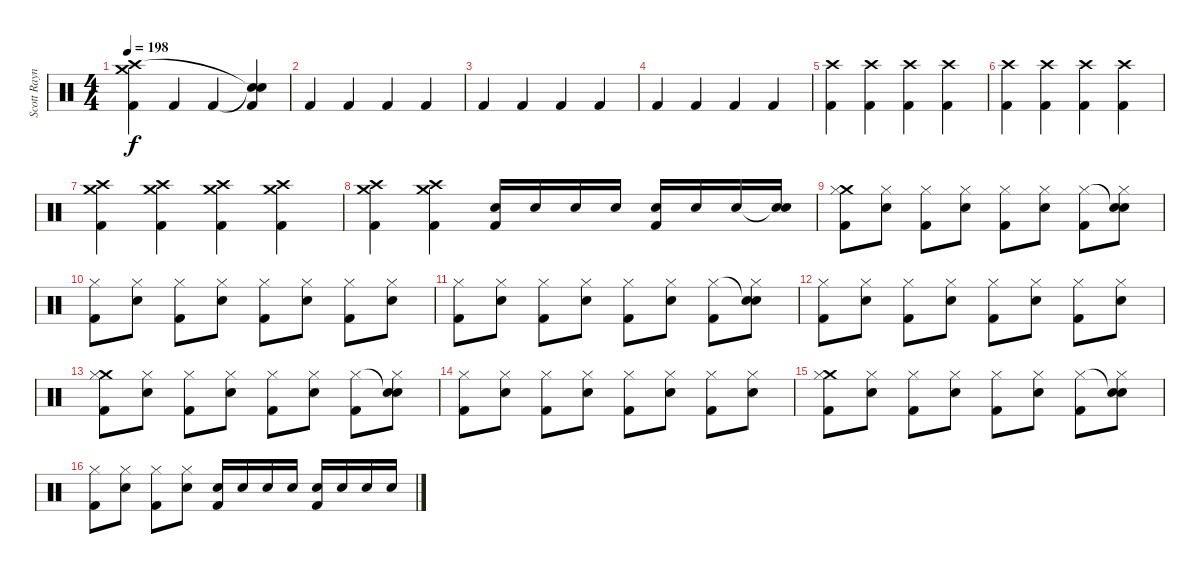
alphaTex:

\track ("Scott Raynor Drums" "Scott Rayn") {instrument percussion}
\staff {score}
\articulation defaults
\ts (4 4)
\tempo 198
\clef neutral
\ks c
("Crash medium (hit)" "Crash high (hit)" "Kick (hit) 2").4{dy f} "Kick (hit) 2".4 "Kick (hit) 2".4 ("Snare (hit)"{t} "Snare (hit)"{t} "Kick (hit) 2").4 |
"Kick (hit) 2".4 "Kick (hit) 2".4 "Kick (hit) 2".4 "Kick (hit) 2".4 |
"Kick (hit) 2".4 "Kick (hit) 2".4 "Kick (hit) 2".4 "Kick (hit) 2".4 |
"Kick (hit) 2".4 "Kick (hit) 2".4 "Kick (hit) 2".4 "Kick (hit) 2".4 |
("Crash high (hit)" "Kick (hit) 2").4 ("Crash high (hit)" "Kick (hit) 2").4 ("Crash high (hit)" "Kick (hit) 2").4 ("Crash high (hit)" "Kick (hit) 2").4 |
("Crash high (hit)" "Kick (hit) 2").4 ("Crash high (hit)" "Kick (hit) 2").4 ("Crash high (hit)" "Kick (hit) 2").4 ("Crash high (hit)" "Kick (hit) 2").4 |
("Crash high (hit)" "Crash medium (hit)" "Kick (hit) 2").4 ("Crash high (hit)" "Crash medium (hit)" "Kick (hit) 2").4 ("Crash high (hit)" "Crash medium (hit)" "Kick (hit) 2").4 ("Crash high (hit)" "Crash medium (hit)" "Kick (hit) 2").4 |
("Crash high (hit)" "Crash medium (hit)" "Kick (hit) 2").4 ("Crash high (hit)" "Crash medium (hit)" "Kick (hit) 2").4 ("Electric Snare (hit)" "Kick (hit) 2").16 "Electric Snare (hit)".16 "Electric Snare (hit)".16 "Electric Snare (hit)".16 ("Electric Snare (hit)" "Kick (hit) 2").16 "Electric Snare (hit)".16 "Electric Snare (hit)".16 ("Snare (hit)"{t} "Electric Snare (hit)").16 |
("Crash medium (hit)" "Hi-Hat (closed)" "Kick (hit) 2").8 ("Hi-Hat (closed)" "Electric Snare (hit)").8 ("Hi-Hat (closed)" "Kick (hit) 2").8 ("Hi-Hat (closed)" "Electric Snare (hit)").8 ("Hi-Hat (closed)" "Kick (hit) 2").8 ("Hi-Hat (closed)" "Electric Snare (hit)").8 ("Hi-Hat (closed)" "Kick (hit) 2").8 ("Snare (hit)"{t} "Hi-Hat (closed)" "Electric Snare (hit)").8 |
("Hi-Hat (closed)" "Kick (hit) 2").8 ("Hi-Hat (closed)" "Electric Snare (hit)").8 ("Hi-Hat (closed)" "Kick (hit) 2").8 ("Hi-Hat (closed)" "Electric Snare (hit)").8 ("Hi-Hat (closed)" "Kick (hit) 2").8 ("Hi-Hat (closed)" "Electric Snare (hit)").8 ("Hi-Hat (closed)" "Kick (hit) 2").8 ("Hi-Hat (closed)" "Electric Snare (hit)").8 |
("Hi-Hat (closed)" "Kick (hit) 2").8 ("Hi-Hat (closed)" "Electric Snare (hit)").8 ("Hi-Hat (closed)" "Kick (hit) 2").8 ("Hi-Hat (closed)" "Electric Snare (hit)").8 ("Hi-Hat (closed)" "Kick (hit) 2").8 ("Hi-Hat (closed)" "Electric Snare (hit)").8 ("Hi-Hat (closed)" "Kick (hit) 2").8 ("Snare (hit)"{t} "Hi-Hat (closed)" "Electric Snare (hit)").8 |
("Hi-Hat (closed)" "Kick (hit) 2").8 ("Hi-Hat (closed)" "Electric Snare (hit)").8 ("Hi-Hat (closed)" "Kick (hit) 2").8 ("Hi-Hat (closed)" "Electric Snare (hit)").8 ("Hi-Hat (closed)" "Kick (hit) 2").8 ("Hi-Hat (closed)" "Electric Snare (hit)").8 ("Hi-Hat (closed)" "Kick (hit) 2").8 ("Hi-Hat (closed)" "Electric Snare (hit)").8 |
("Crash medium (hit)" "Hi-Hat (closed)" "Kick (hit) 2").8 ("Hi-Hat (closed)" "Electric Snare (hit)").8 ("Hi-Hat (closed)" "Kick (hit) 2").8 ("Hi-Hat (closed)" "Electric Snare (hit)").8 ("Hi-Hat (closed)" "Kick (hit) 2").8 ("Hi-Hat (closed)" "Electric Snare (hit)").8 ("Hi-Hat (closed)" "Kick (hit) 2").8 ("Snare (hit)"{t} "Hi-Hat (closed)" "Electric Snare (hit)").8 |
("Hi-Hat (closed)" "Kick (hit) 2").8 ("Hi-Hat (closed)" "Electric Snare (hit)").8 ("Hi-Hat (closed)" "Kick (hit) 2").8 ("Hi-Hat (closed)" "Electric Snare (hit)").8 ("Hi-Hat (closed)" "Kick (hit) 2").8 ("Hi-Hat (closed)" "Electric Snare (hit)").8 ("Hi-Hat (closed)" "Kick (hit) 2").8 ("Hi-Hat (closed)" "Electric Snare (hit)").8 |
("Crash medium (hit)" "Hi-Hat (closed)" "Kick (hit) 2").8 ("Hi-Hat (closed)" "Electric Snare (hit)").8 ("Hi-Hat (closed)" "Kick (hit) 2").8 ("Hi-Hat (closed)" "Electric Snare (hit)").8 ("Hi-Hat (closed)" "Kick (hit) 2").8 ("Hi-Hat (closed)" "Electric Snare (hit)").8 ("Hi-Hat (closed)" "Kick (hit) 2").8 ("Snare (hit)"{t} "Hi-Hat (closed)" "Electric Snare (hit)").8 |
("Hi-Hat (closed)" "Kick (hit) 2").8 ("Hi-Hat (closed)" "Electric Snare (hit)").8 ("Hi-Hat (closed)" "Kick (hit) 2").8 ("Hi-Hat (closed)" "Electric Snare (hit)").8 ("Electric Snare (hit)" "Kick (hit) 2").16 "Electric Snare (hit)".16 "Electric Snare (hit)".16 "Electric Snare (hit)".16 ("Electric Snare (hit)" "Kick (hit) 2").16 "Electric Snare (hit)".16 "Electric Snare (hit)".16 "Electric Snare (hit)".16
